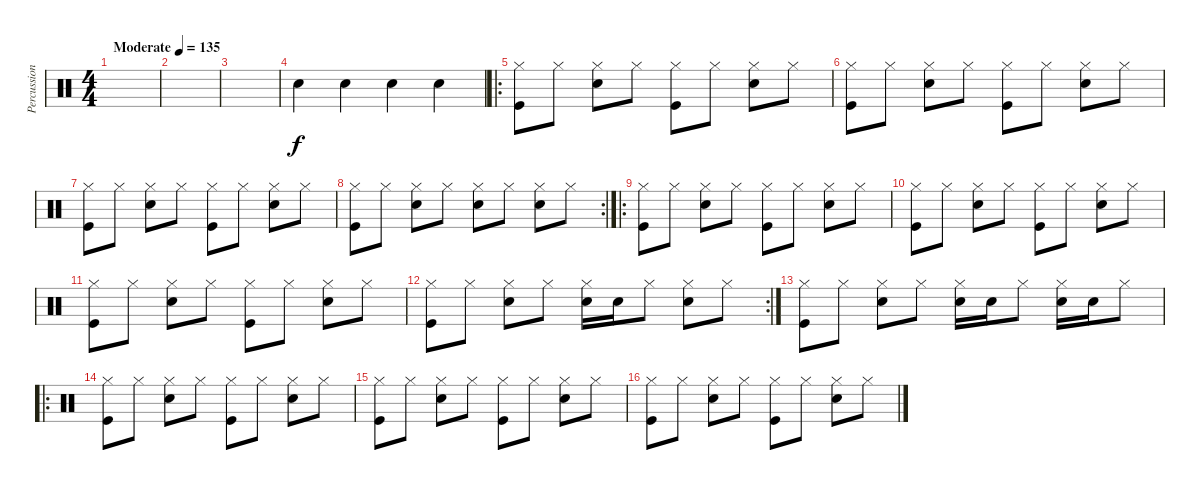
\track ("Percussions" "Percussion") {instrument percussion}
\staff {score}
\articulation defaults
\ts (4 4)
\tempo (135 "Moderate")
\clef neutral
\ks c
|
|
|
"Snare (hit) 2".4 "Snare (hit) 2".4 "Snare (hit) 2".4 "Snare (hit) 2".4 |
\ro
("Hi-Hat (closed)" "Kick (hit)").8 "Hi-Hat (closed)".8 ("Hi-Hat (closed)" "Snare (hit) 2").8 "Hi-Hat (closed)".8 ("Hi-Hat (closed)" "Kick (hit)").8 "Hi-Hat (closed)".8 ("Hi-Hat (closed)" "Snare (hit) 2").8 "Hi-Hat (closed)".8 |
("Hi-Hat (closed)" "Kick (hit)").8 "Hi-Hat (closed)".8 ("Hi-Hat (closed)" "Snare (hit) 2").8 "Hi-Hat (closed)".8 ("Hi-Hat (closed)" "Kick (hit)").8 "Hi-Hat (closed)".8 ("Hi-Hat (closed)" "Snare (hit) 2").8 "Hi-Hat (closed)".8 |
("Hi-Hat (closed)" "Kick (hit)").8 "Hi-Hat (closed)".8 ("Hi-Hat (closed)" "Snare (hit) 2").8 "Hi-Hat (closed)".8 ("Hi-Hat (closed)" "Kick (hit)").8 "Hi-Hat (closed)".8 ("Hi-Hat (closed)" "Snare (hit) 2").8 "Hi-Hat (closed)".8 |
\rc 2
("Hi-Hat (closed)" "Kick (hit)").8 "Hi-Hat (closed)".8 ("Hi-Hat (closed)" "Snare (hit) 2").8 "Hi-Hat (closed)".8 ("Hi-Hat (closed)" "Snare (hit) 2").8 "Hi-Hat (closed)".8 ("Hi-Hat (closed)" "Snare (hit) 2").8 "Hi-Hat (closed)".8 |
\ro
("Hi-Hat (closed)" "Kick (hit)").8 "Hi-Hat (closed)".8 ("Hi-Hat (closed)" "Snare (hit) 2").8 "Hi-Hat (closed)".8 ("Hi-Hat (closed)" "Kick (hit)").8 "Hi-Hat (closed)".8 ("Hi-Hat (closed)" "Snare (hit) 2").8 "Hi-Hat (closed)".8 |
("Hi-Hat (closed)" "Kick (hit)").8 "Hi-Hat (closed)".8 ("Hi-Hat (closed)" "Snare (hit) 2").8 "Hi-Hat (closed)".8 ("Hi-Hat (closed)" "Kick (hit)").8 "Hi-Hat (closed)".8 ("Hi-Hat (closed)" "Snare (hit) 2").8 "Hi-Hat (closed)".8 |
("Hi-Hat (closed)" "Kick (hit)").8 "Hi-Hat (closed)".8 ("Hi-Hat (closed)" "Snare (hit) 2").8 "Hi-Hat (closed)".8 ("Hi-Hat (closed)" "Kick (hit)").8 "Hi-Hat (closed)".8 ("Hi-Hat (closed)" "Snare (hit) 2").8 "Hi-Hat (closed)".8 |
\rc 2
("Hi-Hat (closed)" "Kick (hit)").8 "Hi-Hat (closed)".8 ("Hi-Hat (closed)" "Snare (hit) 2").8 "Hi-Hat (closed)".8 ("Hi-Hat (closed)" "Snare (hit) 2").16 "Snare (hit) 2".16 "Hi-Hat (closed)".8 ("Hi-Hat (closed)" "Snare (hit) 2").8 "Hi-Hat (closed)".8 |
("Hi-Hat (closed)" "Kick (hit)").8 "Hi-Hat (closed)".8 ("Hi-Hat (closed)" "Snare (hit) 2").8 "Hi-Hat (closed)".8 ("Hi-Hat (closed)" "Snare (hit) 2").16 "Snare (hit) 2".16 "Hi-Hat (closed)".8 ("Hi-Hat (closed)" "Snare (hit) 2").16 "Snare (hit) 2".16 "Hi-Hat (closed)".8 |
\ro
("Hi-Hat (closed)" "Kick (hit)").8 "Hi-Hat (closed)".8 ("Hi-Hat (closed)" "Snare (hit) 2").8 "Hi-Hat (closed)".8 ("Hi-Hat (closed)" "Kick (hit)").8 "Hi-Hat (closed)".8 ("Hi-Hat (closed)" "Snare (hit) 2").8 "Hi-Hat (closed)".8 |
("Hi-Hat (closed)" "Kick (hit)").8 "Hi-Hat (closed)".8 ("Hi-Hat (closed)" "Snare (hit) 2").8 "Hi-Hat (closed)".8 ("Hi-Hat (closed)" "Kick (hit)").8 "Hi-Hat (closed)".8 ("Hi-Hat (closed)" "Snare (hit) 2").8 "Hi-Hat (closed)".8 |
("Hi-Hat (closed)" "Kick (hit)").8 "Hi-Hat (closed)".8 ("Hi-Hat (closed)" "Snare (hit) 2").8 "Hi-Hat (closed)".8 ("Hi-Hat (closed)" "Kick (hit)").8 "Hi-Hat (closed)".8 ("Hi-Hat (closed)" "Snare (hit) 2").8 "Hi-Hat (closed)".8
